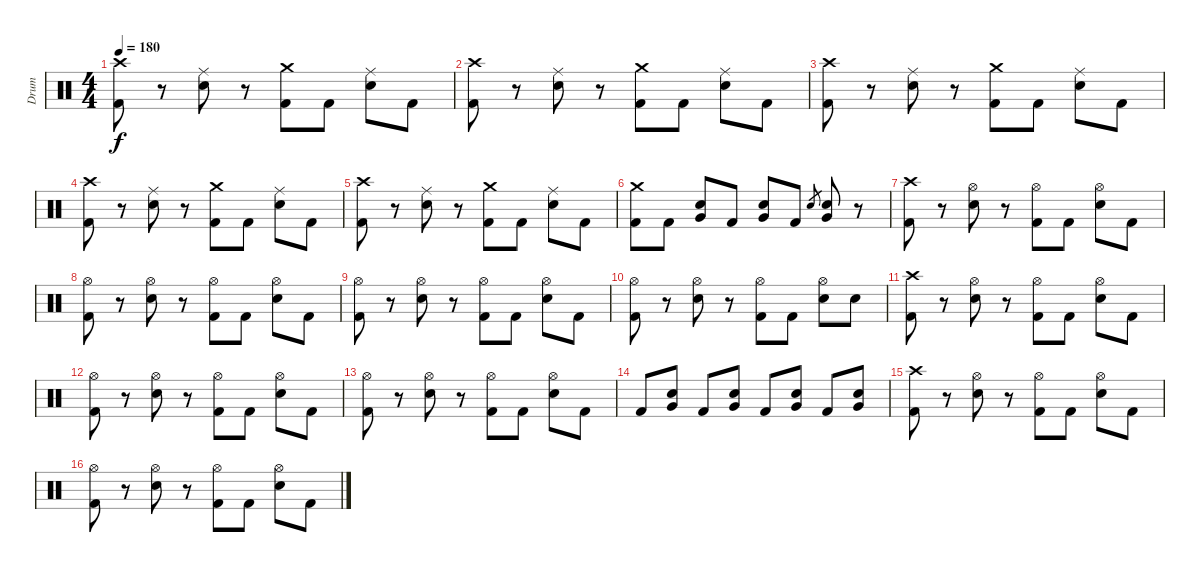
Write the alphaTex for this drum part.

\track ("Drum" "Drum") {instrument percussion}
\staff {score}
\articulation defaults
\ts (4 4)
\tempo 180
\clef neutral
\ks c
("Crash high (hit)" "Kick (hit) 2").8{dy f} r.8 ("Ride (middle)" "Electric Snare (hit)").8 r.8 ("Crash medium (hit)" "Kick (hit) 2").8 "Kick (hit) 2".8 ("Ride (middle)" "Electric Snare (hit)").8 "Kick (hit) 2".8 |
("Crash high (hit)" "Kick (hit) 2").8 r.8 ("Ride (middle)" "Electric Snare (hit)").8 r.8 ("Crash medium (hit)" "Kick (hit) 2").8 "Kick (hit) 2".8 ("Ride (middle)" "Electric Snare (hit)").8 "Kick (hit) 2".8 |
("Crash high (hit)" "Kick (hit) 2").8 r.8 ("Ride (middle)" "Electric Snare (hit)").8 r.8 ("Crash medium (hit)" "Kick (hit) 2").8 "Kick (hit) 2".8 ("Ride (middle)" "Electric Snare (hit)").8 "Kick (hit) 2".8 |
("Crash high (hit)" "Kick (hit) 2").8 r.8 ("Ride (middle)" "Electric Snare (hit)").8 r.8 ("Crash medium (hit)" "Kick (hit) 2").8 "Kick (hit) 2".8 ("Ride (middle)" "Electric Snare (hit)").8 "Kick (hit) 2".8 |
("Crash high (hit)" "Kick (hit) 2").8 r.8 ("Ride (middle)" "Electric Snare (hit)").8 r.8 ("Crash medium (hit)" "Kick (hit) 2").8 "Kick (hit) 2".8 ("Ride (middle)" "Electric Snare (hit)").8 "Kick (hit) 2".8 |
("Crash medium (hit)" "Kick (hit) 2").8 "Kick (hit) 2".8 ("Very Low Tom (hit)" "Electric Snare (hit)").8 "Kick (hit) 2".8 ("Very Low Tom (hit)" "Electric Snare (hit)").8 "Kick (hit) 2".8 "Electric Snare (hit)".8{gr} ("Very Low Tom (hit)" "Electric Snare (hit)").8 r.8 |
("Crash high (hit)" "Kick (hit) 2").8 r.8 ("Hi-Hat (open)" "Electric Snare (hit)").8 r.8 ("Hi-Hat (open)" "Kick (hit) 2").8 "Kick (hit) 2".8 ("Hi-Hat (open)" "Electric Snare (hit)").8 "Kick (hit) 2".8 |
("Hi-Hat (open)" "Kick (hit) 2").8 r.8 ("Hi-Hat (open)" "Electric Snare (hit)").8 r.8 ("Hi-Hat (open)" "Kick (hit) 2").8 "Kick (hit) 2".8 ("Hi-Hat (open)" "Electric Snare (hit)").8 "Kick (hit) 2".8 |
("Hi-Hat (open)" "Kick (hit) 2").8 r.8 ("Hi-Hat (open)" "Electric Snare (hit)").8 r.8 ("Hi-Hat (open)" "Kick (hit) 2").8 "Kick (hit) 2".8 ("Hi-Hat (open)" "Electric Snare (hit)").8 "Kick (hit) 2".8 |
("Hi-Hat (open)" "Kick (hit) 2").8 r.8 ("Hi-Hat (open)" "Electric Snare (hit)").8 r.8 ("Hi-Hat (open)" "Kick (hit) 2").8 "Kick (hit) 2".8 ("Hi-Hat (open)" "Electric Snare (hit)").8 "Electric Snare (hit)".8 |
("Crash high (hit)" "Kick (hit) 2").8 r.8 ("Hi-Hat (open)" "Electric Snare (hit)").8 r.8 ("Hi-Hat (open)" "Kick (hit) 2").8 "Kick (hit) 2".8 ("Hi-Hat (open)" "Electric Snare (hit)").8 "Kick (hit) 2".8 |
("Hi-Hat (open)" "Kick (hit) 2").8 r.8 ("Hi-Hat (open)" "Electric Snare (hit)").8 r.8 ("Hi-Hat (open)" "Kick (hit) 2").8 "Kick (hit) 2".8 ("Hi-Hat (open)" "Electric Snare (hit)").8 "Kick (hit) 2".8 |
("Hi-Hat (open)" "Kick (hit) 2").8 r.8 ("Hi-Hat (open)" "Electric Snare (hit)").8 r.8 ("Hi-Hat (open)" "Kick (hit) 2").8 "Kick (hit) 2".8 ("Hi-Hat (open)" "Electric Snare (hit)").8 "Kick (hit) 2".8 |
"Kick (hit) 2".8 ("Very Low Tom (hit)" "Electric Snare (hit)").8 "Kick (hit) 2".8 ("Very Low Tom (hit)" "Electric Snare (hit)").8 "Kick (hit) 2".8 ("Very Low Tom (hit)" "Electric Snare (hit)").8 "Kick (hit) 2".8 ("Very Low Tom (hit)" "Electric Snare (hit)").8 |
("Crash high (hit)" "Kick (hit) 2").8 r.8 ("Hi-Hat (open)" "Electric Snare (hit)").8 r.8 ("Hi-Hat (open)" "Kick (hit) 2").8 "Kick (hit) 2".8 ("Hi-Hat (open)" "Electric Snare (hit)").8 "Kick (hit) 2".8 |
("Hi-Hat (open)" "Kick (hit) 2").8 r.8 ("Hi-Hat (open)" "Electric Snare (hit)").8 r.8 ("Hi-Hat (open)" "Kick (hit) 2").8 "Kick (hit) 2".8 ("Hi-Hat (open)" "Electric Snare (hit)").8 "Kick (hit) 2".8
